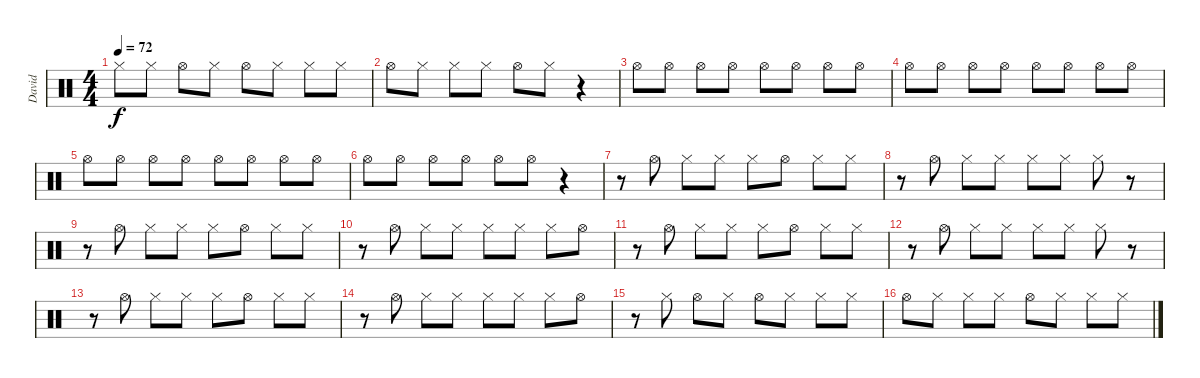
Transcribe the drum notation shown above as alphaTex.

\track ("David" "David") {instrument percussion}
\staff {score}
\articulation defaults
\ts (4 4)
\tempo 72
\clef neutral
\ks c "Hi-Hat (closed)".8{dy f} "Hi-Hat (closed)".8 "Hi-Hat (open)".8 "Hi-Hat (closed)".8 "Hi-Hat (open)".8 "Hi-Hat (closed)".8 "Hi-Hat (closed)".8 "Hi-Hat (closed)".8
|
"Hi-Hat (open)".8 "Hi-Hat (closed)".8 "Hi-Hat (closed)".8 "Hi-Hat (closed)".8 "Hi-Hat (open)".8 "Hi-Hat (closed)".8 r.4 |
"Hi-Hat (open)".8 "Hi-Hat (open)".8 "Hi-Hat (open)".8 "Hi-Hat (open)".8 "Hi-Hat (open)".8 "Hi-Hat (open)".8 "Hi-Hat (open)".8 "Hi-Hat (open)".8 |
"Hi-Hat (open)".8 "Hi-Hat (open)".8 "Hi-Hat (open)".8 "Hi-Hat (open)".8 "Hi-Hat (open)".8 "Hi-Hat (open)".8 "Hi-Hat (open)".8 "Hi-Hat (open)".8 |
"Hi-Hat (open)".8 "Hi-Hat (open)".8 "Hi-Hat (open)".8 "Hi-Hat (open)".8 "Hi-Hat (open)".8 "Hi-Hat (open)".8 "Hi-Hat (open)".8 "Hi-Hat (open)".8 |
"Hi-Hat (open)".8 "Hi-Hat (open)".8 "Hi-Hat (open)".8 "Hi-Hat (open)".8 "Hi-Hat (open)".8 "Hi-Hat (open)".8 r.4 |
r.8 "Hi-Hat (open)".8 "Hi-Hat (closed)".8 "Hi-Hat (closed)".8 "Hi-Hat (closed)".8 "Hi-Hat (open)".8 "Hi-Hat (closed)".8 "Hi-Hat (closed)".8 |
r.8 "Hi-Hat (open)".8 "Hi-Hat (closed)".8 "Hi-Hat (closed)".8 "Hi-Hat (closed)".8 "Hi-Hat (closed)".8 "Hi-Hat (closed)".8 r.8 |
r.8 "Hi-Hat (open)".8 "Hi-Hat (closed)".8 "Hi-Hat (closed)".8 "Hi-Hat (closed)".8 "Hi-Hat (open)".8 "Hi-Hat (closed)".8 "Hi-Hat (closed)".8 |
r.8 "Hi-Hat (open)".8 "Hi-Hat (closed)".8 "Hi-Hat (closed)".8 "Hi-Hat (closed)".8 "Hi-Hat (closed)".8 "Hi-Hat (closed)".8 "Hi-Hat (open)".8 |
r.8 "Hi-Hat (open)".8 "Hi-Hat (closed)".8 "Hi-Hat (closed)".8 "Hi-Hat (closed)".8 "Hi-Hat (open)".8 "Hi-Hat (closed)".8 "Hi-Hat (closed)".8 |
r.8 "Hi-Hat (open)".8 "Hi-Hat (closed)".8 "Hi-Hat (closed)".8 "Hi-Hat (closed)".8 "Hi-Hat (closed)".8 "Hi-Hat (closed)".8 r.8 |
r.8 "Hi-Hat (open)".8 "Hi-Hat (closed)".8 "Hi-Hat (closed)".8 "Hi-Hat (closed)".8 "Hi-Hat (open)".8 "Hi-Hat (closed)".8 "Hi-Hat (closed)".8 |
r.8 "Hi-Hat (open)".8 "Hi-Hat (closed)".8 "Hi-Hat (closed)".8 "Hi-Hat (closed)".8 "Hi-Hat (closed)".8 "Hi-Hat (closed)".8 "Hi-Hat (open)".8 |
r.8 "Hi-Hat (closed)".8 "Hi-Hat (open)".8 "Hi-Hat (closed)".8 "Hi-Hat (open)".8 "Hi-Hat (closed)".8 "Hi-Hat (closed)".8 "Hi-Hat (closed)".8 |
"Hi-Hat (open)".8 "Hi-Hat (closed)".8 "Hi-Hat (closed)".8 "Hi-Hat (closed)".8 "Hi-Hat (open)".8 "Hi-Hat (closed)".8 "Hi-Hat (closed)".8 "Hi-Hat (closed)".8
